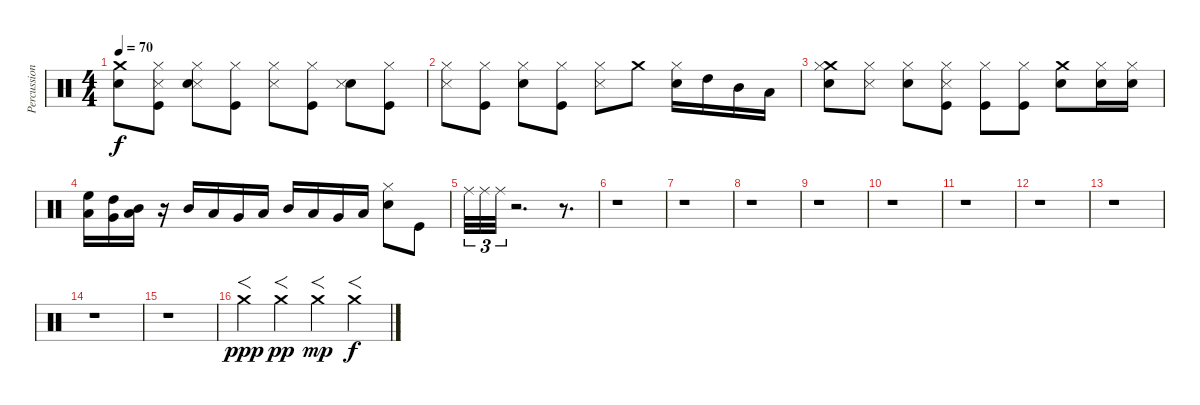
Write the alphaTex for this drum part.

\track ("Percussions" "Percussion") {instrument percussion}
\staff {score}
\articulation defaults
\ts (4 4)
\tempo 70
\clef neutral
\ks c
("Crash medium (hit)" "Snare (hit) 2").8{dy f} ("Snare (side stick) 3" "Kick (hit)" "Hi-Hat (closed)").8 ("Snare (side stick) 3" "Electric Snare (hit)" "Hi-Hat (closed)").8 ("Hi-Hat (closed)" "Kick (hit)").8 ("Snare (side stick) 3" "Hi-Hat (closed)").8 ("Hi-Hat (closed)" "Kick (hit)").8 ("Electric Snare (hit)" "Snare (side stick) 3").8 ("Kick (hit)" "Hi-Hat (closed)").8 |
("Snare (side stick) 3" "Hi-Hat (closed)").8 ("Kick (hit)" "Hi-Hat (closed)").8 ("Electric Snare (hit)" "Hi-Hat (closed)").8 ("Kick (hit)" "Hi-Hat (closed)").8 ("Snare (side stick) 3" "Hi-Hat (closed)").8 "Crash medium (hit)".8 ("Snare (hit) 2" "Hi-Hat (closed)").16 "High Tom (hit)".16 "Mid Tom (hit)".16 "Low Tom (hit)".16 |
("Crash medium (hit)" "Snare (hit) 2" "Hi-Hat (closed)").8 ("Hi-Hat (closed)" "Snare (side stick) 3").8 ("Electric Snare (hit)" "Hi-Hat (closed)").8 ("Hi-Hat (closed)" "Snare (side stick) 3" "Kick (hit)").8 ("Hi-Hat (closed)" "Kick (hit)").8 ("Hi-Hat (closed)" "Kick (hit)").8 ("Crash medium (hit)" "Snare (hit) 2").8 ("Electric Snare (hit)" "Hi-Hat (closed)").16 ("Snare (hit) 2" "Hi-Hat (closed)").16 |
("High Floor Tom (hit)" "Low Tom (hit)").16 ("High Tom (hit)" "Very Low Tom (hit)").16 ("Mid Tom (hit)" "Low Floor Tom (hit)").16 r.16 "Mid Tom (hit)".16 "Low Tom (hit)".16 "Very Low Tom (hit)".16 "Low Floor Tom (hit)".16 "Mid Tom (hit)".16 "Low Tom (hit)".16 "Very Low Tom (hit)".16 "Low Floor Tom (hit)".16 ("Electric Snare (hit)" "Hi-Hat (closed)").8 "Kick (hit)".8 |
"Ride (middle)".32{tu (3 2)} "Ride (middle)".32{tu (3 2)} "Ride (middle)".32{tu (3 2)} r.2{d} r.8{d} |
r.1 |
r.1 |
r.1 |
r.1 |
r.1 |
r.1 |
r.1 |
r.1 |
r.1 |
r.1 |
"Crash medium (hit)".4{f dy ppp volume 16} "Crash medium (hit)".4{f dy pp volume 16} "Crash medium (hit)".4{f dy mp volume 16} "Crash medium (hit)".4{f dy f volume 16}
